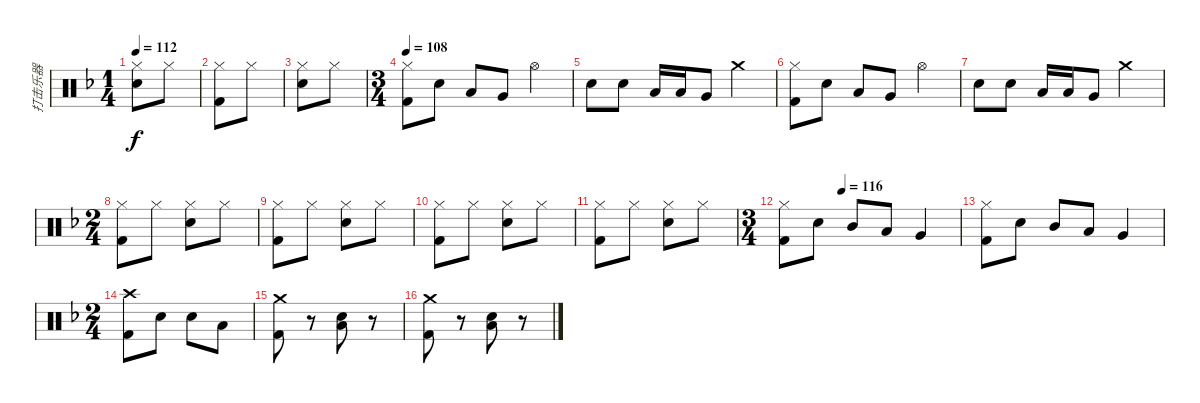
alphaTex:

\track ("打击乐器" "打击乐器") {instrument percussion}
\staff {score}
\articulation defaults
\ts (1 4)
\tempo 112
\clef neutral
\ks f
("Hi-Hat (closed)" "Snare (hit) 2").8{dy f} "Hi-Hat (closed)".8 |
("Hi-Hat (closed)" "Kick (hit) 2").8 "Hi-Hat (closed)".8 |
("Hi-Hat (closed)" "Snare (hit) 2").8 "Hi-Hat (closed)".8 |
\ts (3 4)
\tempo 108
("Hi-Hat (closed)" "Kick (hit) 2").8 "Snare (hit) 2".8 "Low Tom (hit)".8 "Very Low Tom (hit)".8 "Hi-Hat (open)".4 |
"Snare (hit) 2".8 "Snare (hit) 2".8 "Low Tom (hit)".16 "Low Tom (hit)".16 "Very Low Tom (hit)".8 "Crash medium (hit)".4 |
("Hi-Hat (closed)" "Kick (hit) 2").8 "Snare (hit) 2".8 "Low Tom (hit)".8 "Very Low Tom (hit)".8 "Hi-Hat (open)".4 |
"Snare (hit) 2".8 "Snare (hit) 2".8 "Low Tom (hit)".16 "Low Tom (hit)".16 "Very Low Tom (hit)".8 "Crash medium (hit)".4 |
\ts (2 4)
("Hi-Hat (closed)" "Kick (hit) 2").8 "Hi-Hat (closed)".8 ("Hi-Hat (closed)" "Snare (hit) 2").8 "Hi-Hat (closed)".8 |
("Hi-Hat (closed)" "Kick (hit) 2").8 "Hi-Hat (closed)".8 ("Hi-Hat (closed)" "Snare (hit) 2").8 "Hi-Hat (closed)".8 |
("Hi-Hat (closed)" "Kick (hit) 2").8 "Hi-Hat (closed)".8 ("Hi-Hat (closed)" "Snare (hit) 2").8 "Hi-Hat (closed)".8 |
("Hi-Hat (closed)" "Kick (hit) 2").8 "Hi-Hat (closed)".8 ("Hi-Hat (closed)" "Snare (hit) 2").8 "Hi-Hat (closed)".8 |
\ts (3 4)
\tempo (116 0.3333333333333333)
("Hi-Hat (closed)" "Kick (hit) 2").8 "Snare (hit) 2".8 "Mid Tom (hit)".8 "Low Tom (hit)".8 "Very Low Tom (hit)".4 |
("Hi-Hat (closed)" "Kick (hit) 2").8 "Snare (hit) 2".8 "Mid Tom (hit)".8 "Low Tom (hit)".8 "Very Low Tom (hit)".4 |
\ts (2 4)
("Crash high (hit)" "Kick (hit) 2").8 "Snare (hit) 2".8 "Snare (hit) 2".8 "Low Tom (hit)".8 |
("Crash medium (hit)" "Kick (hit) 2").8 r.8 ("Low Floor Tom (hit)" "Snare (hit) 2").8 r.8 |
("Crash medium (hit)" "Kick (hit) 2").8 r.8 ("Low Tom (hit)" "Snare (hit) 2").8 r.8
